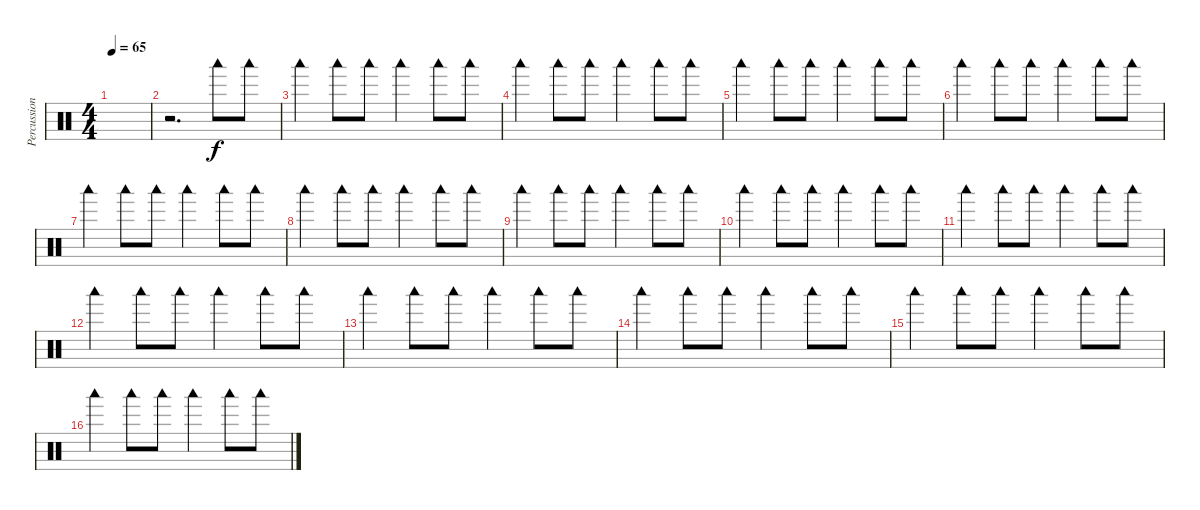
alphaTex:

\track ("Percussions" "Percussion") {instrument percussion}
\staff {score}
\articulation defaults
\ts (4 4)
\tempo 65
\clef neutral
\ks c
|
r.2{d} "Woodblock low (hit)".8 "Woodblock low (hit)".8 |
"Woodblock low (hit)".4 "Woodblock low (hit)".8 "Woodblock low (hit)".8 "Woodblock low (hit)".4 "Woodblock low (hit)".8 "Woodblock low (hit)".8 |
"Woodblock low (hit)".4 "Woodblock low (hit)".8 "Woodblock low (hit)".8 "Woodblock low (hit)".4 "Woodblock low (hit)".8 "Woodblock low (hit)".8 |
"Woodblock low (hit)".4 "Woodblock low (hit)".8 "Woodblock low (hit)".8 "Woodblock low (hit)".4 "Woodblock low (hit)".8 "Woodblock low (hit)".8 |
"Woodblock low (hit)".4 "Woodblock low (hit)".8 "Woodblock low (hit)".8 "Woodblock low (hit)".4 "Woodblock low (hit)".8 "Woodblock low (hit)".8 |
"Woodblock low (hit)".4 "Woodblock low (hit)".8 "Woodblock low (hit)".8 "Woodblock low (hit)".4 "Woodblock low (hit)".8 "Woodblock low (hit)".8 |
"Woodblock low (hit)".4 "Woodblock low (hit)".8 "Woodblock low (hit)".8 "Woodblock low (hit)".4 "Woodblock low (hit)".8 "Woodblock low (hit)".8 |
"Woodblock low (hit)".4 "Woodblock low (hit)".8 "Woodblock low (hit)".8 "Woodblock low (hit)".4 "Woodblock low (hit)".8 "Woodblock low (hit)".8 |
"Woodblock low (hit)".4 "Woodblock low (hit)".8 "Woodblock low (hit)".8 "Woodblock low (hit)".4 "Woodblock low (hit)".8 "Woodblock low (hit)".8 |
"Woodblock low (hit)".4 "Woodblock low (hit)".8 "Woodblock low (hit)".8 "Woodblock low (hit)".4 "Woodblock low (hit)".8 "Woodblock low (hit)".8 |
"Woodblock low (hit)".4 "Woodblock low (hit)".8 "Woodblock low (hit)".8 "Woodblock low (hit)".4 "Woodblock low (hit)".8 "Woodblock low (hit)".8 |
"Woodblock low (hit)".4 "Woodblock low (hit)".8 "Woodblock low (hit)".8 "Woodblock low (hit)".4 "Woodblock low (hit)".8 "Woodblock low (hit)".8 |
"Woodblock low (hit)".4 "Woodblock low (hit)".8 "Woodblock low (hit)".8 "Woodblock low (hit)".4 "Woodblock low (hit)".8 "Woodblock low (hit)".8 |
"Woodblock low (hit)".4 "Woodblock low (hit)".8 "Woodblock low (hit)".8 "Woodblock low (hit)".4 "Woodblock low (hit)".8 "Woodblock low (hit)".8 |
"Woodblock low (hit)".4 "Woodblock low (hit)".8 "Woodblock low (hit)".8 "Woodblock low (hit)".4 "Woodblock low (hit)".8 "Woodblock low (hit)".8
